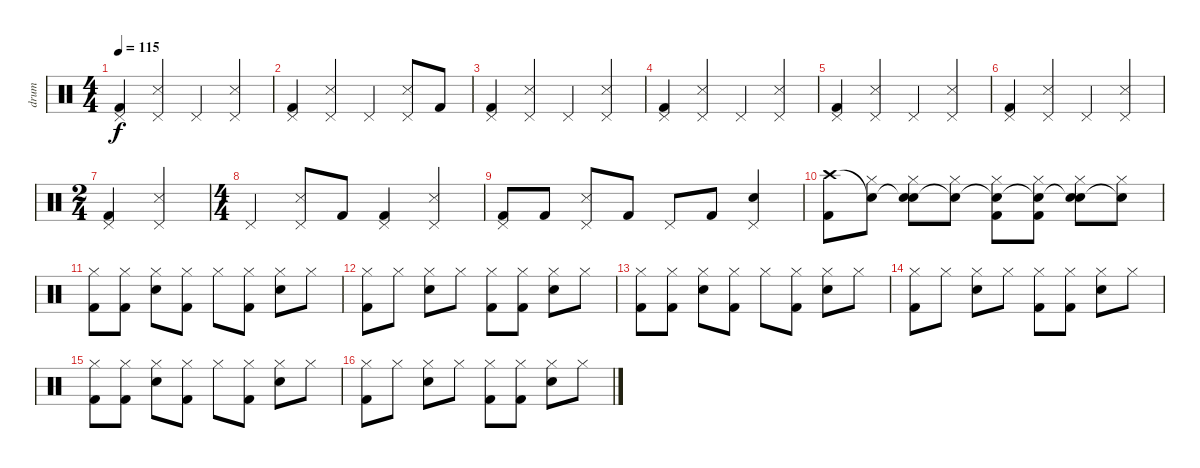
\track ("drum" "drum") {instrument percussion}
\staff {score}
\articulation defaults
\ts (4 4)
\tempo 115
\clef neutral
\ks c
("Pedal Hi-Hat (hit)" "Kick (hit) 2").4{dy f} ("Pedal Hi-Hat (hit)" "Snare (side stick) 3").4 "Pedal Hi-Hat (hit)".4 ("Pedal Hi-Hat (hit)" "Snare (side stick) 3").4 |
("Pedal Hi-Hat (hit)" "Kick (hit) 2").4 ("Pedal Hi-Hat (hit)" "Snare (side stick) 3").4 "Pedal Hi-Hat (hit)".4 ("Pedal Hi-Hat (hit)" "Snare (side stick) 3").8 "Kick (hit) 2".8 |
("Pedal Hi-Hat (hit)" "Kick (hit) 2").4 ("Pedal Hi-Hat (hit)" "Snare (side stick) 3").4 "Pedal Hi-Hat (hit)".4 ("Pedal Hi-Hat (hit)" "Snare (side stick) 3").4 |
("Pedal Hi-Hat (hit)" "Kick (hit) 2").4 ("Pedal Hi-Hat (hit)" "Snare (side stick) 3").4 "Pedal Hi-Hat (hit)".4 ("Pedal Hi-Hat (hit)" "Snare (side stick) 3").4 |
("Pedal Hi-Hat (hit)" "Kick (hit) 2").4 ("Pedal Hi-Hat (hit)" "Snare (side stick) 3").4 "Pedal Hi-Hat (hit)".4 ("Pedal Hi-Hat (hit)" "Snare (side stick) 3").4 |
("Pedal Hi-Hat (hit)" "Kick (hit) 2").4 ("Pedal Hi-Hat (hit)" "Snare (side stick) 3").4 "Pedal Hi-Hat (hit)".4 ("Pedal Hi-Hat (hit)" "Snare (side stick) 3").4 |
\ts (2 4)
("Pedal Hi-Hat (hit)" "Kick (hit) 2").4 ("Pedal Hi-Hat (hit)" "Snare (side stick) 3").4 |
\ts (4 4)
"Pedal Hi-Hat (hit)".4 ("Pedal Hi-Hat (hit)" "Snare (side stick) 3").8 "Kick (hit) 2".8 ("Pedal Hi-Hat (hit)" "Kick (hit) 2").4 ("Pedal Hi-Hat (hit)" "Snare (side stick) 3").4 |
("Pedal Hi-Hat (hit)" "Kick (hit) 2").8 "Kick (hit) 2".8 ("Pedal Hi-Hat (hit)" "Snare (side stick) 3").8 "Kick (hit) 2".8 "Pedal Hi-Hat (hit)".8 "Kick (hit) 2".8 ("Pedal Hi-Hat (hit)" "Snare (hit) 2").4 |
("Crash high (hit)" "Kick (hit) 2").8 ("Snare (hit)"{t} "Hi-Hat (closed)").8 ("Snare (hit)"{t} "Hi-Hat (closed)" "Snare (hit) 2").8 ("Snare (hit)"{t} "Hi-Hat (closed)").8 ("Snare (hit)"{t} "Hi-Hat (closed)" "Kick (hit) 2").8 ("Snare (hit)"{t} "Hi-Hat (closed)" "Kick (hit) 2").8 ("Snare (hit)"{t} "Hi-Hat (closed)" "Snare (hit) 2").8 ("Snare (hit)"{t} "Hi-Hat (closed)").8 |
("Hi-Hat (closed)" "Kick (hit) 2").8 ("Hi-Hat (closed)" "Kick (hit) 2").8 ("Hi-Hat (closed)" "Snare (hit) 2").8 ("Hi-Hat (closed)" "Kick (hit) 2").8 "Hi-Hat (closed)".8 ("Hi-Hat (closed)" "Kick (hit) 2").8 ("Hi-Hat (closed)" "Snare (hit) 2").8 "Hi-Hat (closed)".8 |
("Hi-Hat (closed)" "Kick (hit) 2").8 "Hi-Hat (closed)".8 ("Hi-Hat (closed)" "Snare (hit) 2").8 "Hi-Hat (closed)".8 ("Hi-Hat (closed)" "Kick (hit) 2").8 ("Hi-Hat (closed)" "Kick (hit) 2").8 ("Hi-Hat (closed)" "Snare (hit) 2").8 "Hi-Hat (closed)".8 |
("Hi-Hat (closed)" "Kick (hit) 2").8 ("Hi-Hat (closed)" "Kick (hit) 2").8 ("Hi-Hat (closed)" "Snare (hit) 2").8 ("Hi-Hat (closed)" "Kick (hit) 2").8 "Hi-Hat (closed)".8 ("Hi-Hat (closed)" "Kick (hit) 2").8 ("Hi-Hat (closed)" "Snare (hit) 2").8 "Hi-Hat (closed)".8 |
("Hi-Hat (closed)" "Kick (hit) 2").8 "Hi-Hat (closed)".8 ("Hi-Hat (closed)" "Snare (hit) 2").8 "Hi-Hat (closed)".8 ("Hi-Hat (closed)" "Kick (hit) 2").8 ("Hi-Hat (closed)" "Kick (hit) 2").8 ("Hi-Hat (closed)" "Snare (hit) 2").8 "Hi-Hat (closed)".8 |
("Hi-Hat (closed)" "Kick (hit) 2").8 ("Hi-Hat (closed)" "Kick (hit) 2").8 ("Hi-Hat (closed)" "Snare (hit) 2").8 ("Hi-Hat (closed)" "Kick (hit) 2").8 "Hi-Hat (closed)".8 ("Hi-Hat (closed)" "Kick (hit) 2").8 ("Hi-Hat (closed)" "Snare (hit) 2").8 "Hi-Hat (closed)".8 |
("Hi-Hat (closed)" "Kick (hit) 2").8 "Hi-Hat (closed)".8 ("Hi-Hat (closed)" "Snare (hit) 2").8 "Hi-Hat (closed)".8 ("Hi-Hat (closed)" "Kick (hit) 2").8 ("Hi-Hat (closed)" "Kick (hit) 2").8 ("Hi-Hat (closed)" "Snare (hit) 2").8 "Hi-Hat (closed)".8
